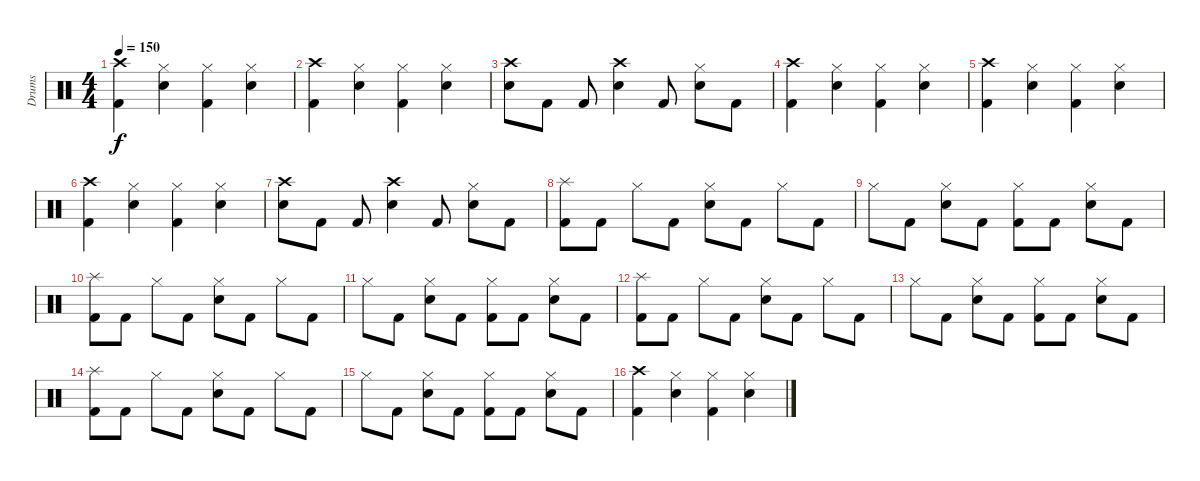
\track ("Drums" "Drums") {instrument percussion}
\staff {score}
\articulation defaults
\ts (4 4)
\tempo 150
\clef neutral
\ks c
("Crash high (hit)" "Kick (hit) 2").4{dy f} ("Hi-Hat (closed)" "Snare (hit) 2").4 ("Hi-Hat (closed)" "Kick (hit) 2").4 ("Hi-Hat (closed)" "Snare (hit) 2").4 |
("Crash high (hit)" "Kick (hit) 2").4 ("Hi-Hat (closed)" "Snare (hit) 2").4 ("Hi-Hat (closed)" "Kick (hit) 2").4 ("Snare (hit) 2" "Hi-Hat (closed)").4 |
("Snare (hit) 2" "Crash high (hit)").8 "Kick (hit) 2".8 "Kick (hit) 2".8 ("Crash high (hit)" "Snare (hit) 2").4 "Kick (hit) 2".8 ("Hi-Hat (closed)" "Snare (hit) 2").8 "Kick (hit) 2".8 |
("Crash high (hit)" "Kick (hit) 2").4 ("Hi-Hat (closed)" "Snare (hit) 2").4 ("Hi-Hat (closed)" "Kick (hit) 2").4 ("Hi-Hat (closed)" "Snare (hit) 2").4 |
("Crash high (hit)" "Kick (hit) 2").4 ("Snare (hit) 2" "Hi-Hat (closed)").4 ("Kick (hit) 2" "Hi-Hat (closed)").4 ("Hi-Hat (closed)" "Snare (hit) 2").4 |
("Kick (hit) 2" "Crash high (hit)").4 ("Hi-Hat (closed)" "Snare (hit) 2").4 ("Kick (hit) 2" "Hi-Hat (closed)").4 ("Snare (hit) 2" "Hi-Hat (closed)").4 |
("Crash high (hit)" "Snare (hit) 2").8 "Kick (hit) 2".8 "Kick (hit) 2".8 ("Snare (hit) 2" "Crash high (hit)").4 "Kick (hit) 2".8 ("Snare (hit) 2" "Hi-Hat (closed)").8 "Kick (hit) 2".8 |
("Splash (hit)" "Kick (hit) 2").8 "Kick (hit) 2".8 "Hi-Hat (closed)".8 "Kick (hit) 2".8 ("Snare (hit) 2" "Hi-Hat (closed)").8 "Kick (hit) 2".8 "Hi-Hat (closed)".8 "Kick (hit) 2".8 |
"Hi-Hat (closed)".8 "Kick (hit) 2".8 ("Snare (hit) 2" "Hi-Hat (closed)").8 "Kick (hit) 2".8 ("Kick (hit) 2" "Hi-Hat (closed)").8 "Kick (hit) 2".8 ("Hi-Hat (closed)" "Snare (hit) 2").8 "Kick (hit) 2".8 |
("Splash (hit)" "Kick (hit) 2").8 "Kick (hit) 2".8 "Hi-Hat (closed)".8 "Kick (hit) 2".8 ("Hi-Hat (closed)" "Snare (hit) 2").8 "Kick (hit) 2".8 "Hi-Hat (closed)".8 "Kick (hit) 2".8 |
"Hi-Hat (closed)".8 "Kick (hit) 2".8 ("Snare (hit) 2" "Hi-Hat (closed)").8 "Kick (hit) 2".8 ("Kick (hit) 2" "Hi-Hat (closed)").8 "Kick (hit) 2".8 ("Hi-Hat (closed)" "Snare (hit) 2").8 "Kick (hit) 2".8 |
("Kick (hit) 2" "Splash (hit)").8 "Kick (hit) 2".8 "Hi-Hat (closed)".8 "Kick (hit) 2".8 ("Snare (hit) 2" "Hi-Hat (closed)").8 "Kick (hit) 2".8 "Hi-Hat (closed)".8 "Kick (hit) 2".8 |
"Hi-Hat (closed)".8 "Kick (hit) 2".8 ("Snare (hit) 2" "Hi-Hat (closed)").8 "Kick (hit) 2".8 ("Hi-Hat (closed)" "Kick (hit) 2").8 "Kick (hit) 2".8 ("Snare (hit) 2" "Hi-Hat (closed)").8 "Kick (hit) 2".8 |
("Kick (hit) 2" "Splash (hit)").8 "Kick (hit) 2".8 "Hi-Hat (closed)".8 "Kick (hit) 2".8 ("Snare (hit) 2" "Hi-Hat (closed)").8 "Kick (hit) 2".8 "Hi-Hat (closed)".8 "Kick (hit) 2".8 |
"Hi-Hat (closed)".8 "Kick (hit) 2".8 ("Hi-Hat (closed)" "Snare (hit) 2").8 "Kick (hit) 2".8 ("Hi-Hat (closed)" "Kick (hit) 2").8 "Kick (hit) 2".8 ("Hi-Hat (closed)" "Snare (hit) 2").8 "Kick (hit) 2".8 |
("Crash high (hit)" "Kick (hit) 2").4 ("Snare (hit) 2" "Hi-Hat (closed)").4 ("Kick (hit) 2" "Hi-Hat (closed)").4 ("Hi-Hat (closed)" "Snare (hit) 2").4
